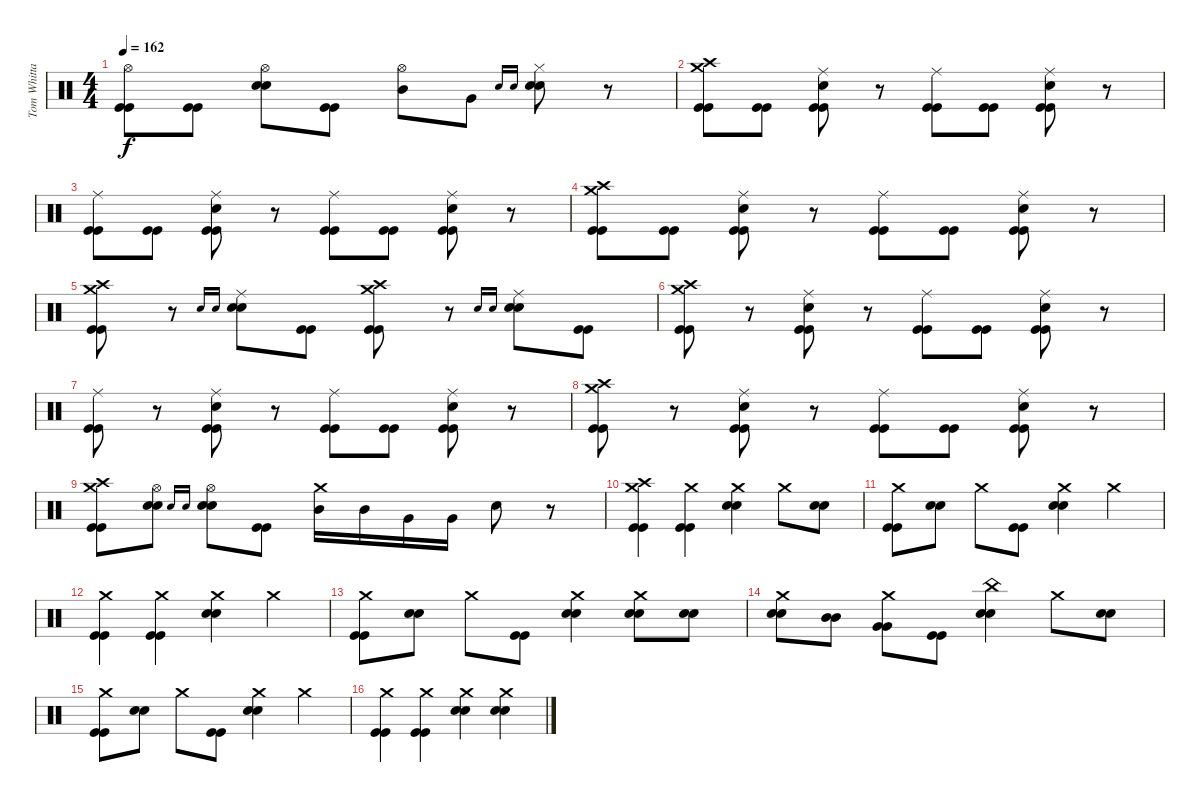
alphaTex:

\track ("Tom Whittaker" "Tom Whitta") {instrument percussion}
\staff {score}
\articulation defaults
\ts (4 4)
\tempo 162
\clef neutral
\ks c
("Hi-Hat (open)" "Kick (hit)" "Kick (hit)").8{dy f} ("Kick (hit)" "Kick (hit)").8 ("Hi-Hat (open)" "Electric Snare (hit)" "Electric Snare (hit)").8 ("Kick (hit)" "Kick (hit)").8 ("Hi-Hat (open)" "Mid Tom (hit)").8 "Very Low Tom (hit)".8 "Electric Snare (hit)".16{gr onbeat} "Electric Snare (hit)".16{gr onbeat} ("Hi-Hat (closed)" "Electric Snare (hit)" "Electric Snare (hit)").8 r.8 |
("Crash medium (hit)" "Crash high (hit)" "Kick (hit)" "Kick (hit)").8 ("Kick (hit)" "Kick (hit)").8 ("Ride (middle)" "Electric Snare (hit)" "Kick (hit)" "Kick (hit)").8 r.8 ("Ride (middle)" "Kick (hit)" "Kick (hit)").8 ("Kick (hit)" "Kick (hit)").8 ("Ride (middle)" "Electric Snare (hit)" "Kick (hit)" "Kick (hit)").8 r.8 |
("Ride (middle)" "Kick (hit)" "Kick (hit)").8 ("Kick (hit)" "Kick (hit)").8 ("Ride (middle)" "Electric Snare (hit)" "Kick (hit)" "Kick (hit)").8 r.8 ("Ride (middle)" "Kick (hit)" "Kick (hit)").8 ("Kick (hit)" "Kick (hit)").8 ("Ride (middle)" "Electric Snare (hit)" "Kick (hit)" "Kick (hit)").8 r.8 |
("Crash medium (hit)" "Crash high (hit)" "Kick (hit)" "Kick (hit)").8 ("Kick (hit)" "Kick (hit)").8 ("Ride (middle)" "Electric Snare (hit)" "Kick (hit)" "Kick (hit)").8 r.8 ("Ride (middle)" "Kick (hit)" "Kick (hit)").8 ("Kick (hit)" "Kick (hit)").8 ("Ride (middle)" "Electric Snare (hit)" "Kick (hit)" "Kick (hit)").8 r.8 |
("Crash high (hit)" "Crash medium (hit)" "Kick (hit)" "Kick (hit)").8 r.8 "Electric Snare (hit)".16{gr onbeat} "Electric Snare (hit)".16{gr onbeat} ("Ride (middle)" "Electric Snare (hit)" "Electric Snare (hit)").8 ("Kick (hit)" "Kick (hit)").8 ("Crash high (hit)" "Crash medium (hit)" "Kick (hit)" "Kick (hit)").8 r.8 "Electric Snare (hit)".16{gr onbeat} "Electric Snare (hit)".16{gr onbeat} ("Ride (middle)" "Electric Snare (hit)" "Electric Snare (hit)").8 ("Kick (hit)" "Kick (hit)").8 |
("Crash medium (hit)" "Crash high (hit)" "Kick (hit)" "Kick (hit)").8 r.8 ("Ride (middle)" "Electric Snare (hit)" "Kick (hit)" "Kick (hit)").8 r.8 ("Ride (middle)" "Kick (hit)" "Kick (hit)").8 ("Kick (hit)" "Kick (hit)").8 ("Ride (middle)" "Electric Snare (hit)" "Kick (hit)" "Kick (hit)").8 r.8 |
("Ride (middle)" "Kick (hit)" "Kick (hit)").8 r.8 ("Ride (middle)" "Electric Snare (hit)" "Kick (hit)" "Kick (hit)").8 r.8 ("Ride (middle)" "Kick (hit)" "Kick (hit)").8 ("Kick (hit)" "Kick (hit)").8 ("Ride (middle)" "Electric Snare (hit)" "Kick (hit)" "Kick (hit)").8 r.8 |
("Crash medium (hit)" "Crash high (hit)" "Kick (hit)" "Kick (hit)").8 r.8 ("Ride (middle)" "Electric Snare (hit)" "Kick (hit)" "Kick (hit)").8 r.8 ("Ride (middle)" "Kick (hit)" "Kick (hit)").8 ("Kick (hit)" "Kick (hit)").8 ("Ride (middle)" "Electric Snare (hit)" "Kick (hit)" "Kick (hit)").8 r.8 |
("Crash high (hit)" "Crash medium (hit)" "Kick (hit)" "Kick (hit)").8 ("Hi-Hat (open)" "Electric Snare (hit)" "Electric Snare (hit)").8 "Electric Snare (hit)".16{gr onbeat} "Electric Snare (hit)".16{gr onbeat} ("Hi-Hat (open)" "Electric Snare (hit)" "Electric Snare (hit)").8 ("Kick (hit)" "Kick (hit)").8 ("Crash medium (hit)" "Mid Tom (hit)").16 "Mid Tom (hit)".16 "Very Low Tom (hit)".16 "Very Low Tom (hit)".16 "Electric Snare (hit)".8 r.8 |
("Crash medium (hit)" "Crash high (hit)" "Kick (hit)" "Kick (hit)").4 ("Crash medium (hit)" "Kick (hit)" "Kick (hit)").4 ("Crash medium (hit)" "Electric Snare (hit)" "Electric Snare (hit)").4 "Crash medium (hit)".8 ("Electric Snare (hit)" "Electric Snare (hit)").8 |
("Crash medium (hit)" "Kick (hit)" "Kick (hit)").8 ("Electric Snare (hit)" "Electric Snare (hit)").8 "Crash medium (hit)".8 ("Kick (hit)" "Kick (hit)").8 ("Crash medium (hit)" "Electric Snare (hit)" "Electric Snare (hit)").4 "Crash medium (hit)".4 |
("Crash medium (hit)" "Kick (hit)" "Kick (hit)").4 ("Crash medium (hit)" "Kick (hit)" "Kick (hit)").4 ("Crash medium (hit)" "Electric Snare (hit)" "Electric Snare (hit)").4 "Crash medium (hit)".4 |
("Crash medium (hit)" "Kick (hit)" "Kick (hit)").8 ("Electric Snare (hit)" "Electric Snare (hit)").8 "Crash medium (hit)".8 ("Kick (hit)" "Kick (hit)").8 ("Crash medium (hit)" "Electric Snare (hit)" "Electric Snare (hit)").4 ("Crash medium (hit)" "Electric Snare (hit)" "Electric Snare (hit)").8 ("Electric Snare (hit)" "Electric Snare (hit)").8 |
("Crash medium (hit)" "Electric Snare (hit)" "Electric Snare (hit)").8 ("Mid Tom (hit)" "Mid Tom (hit)").8 ("Crash medium (hit)" "Very Low Tom (hit)" "Very Low Tom (hit)").8 ("Kick (hit)" "Kick (hit)").8 ("China (hit)" "Electric Snare (hit)" "Electric Snare (hit)").4 "Crash medium (hit)".8 ("Electric Snare (hit)" "Electric Snare (hit)").8 |
("Crash medium (hit)" "Kick (hit)" "Kick (hit)").8 ("Electric Snare (hit)" "Electric Snare (hit)").8 "Crash medium (hit)".8 ("Kick (hit)" "Kick (hit)").8 ("Crash medium (hit)" "Electric Snare (hit)" "Electric Snare (hit)").4 "Crash medium (hit)".4 |
("Crash medium (hit)" "Kick (hit)" "Kick (hit)").4 ("Crash medium (hit)" "Kick (hit)" "Kick (hit)").4 ("Crash medium (hit)" "Electric Snare (hit)" "Electric Snare (hit)").4 ("Crash medium (hit)" "Electric Snare (hit)" "Electric Snare (hit)").4
